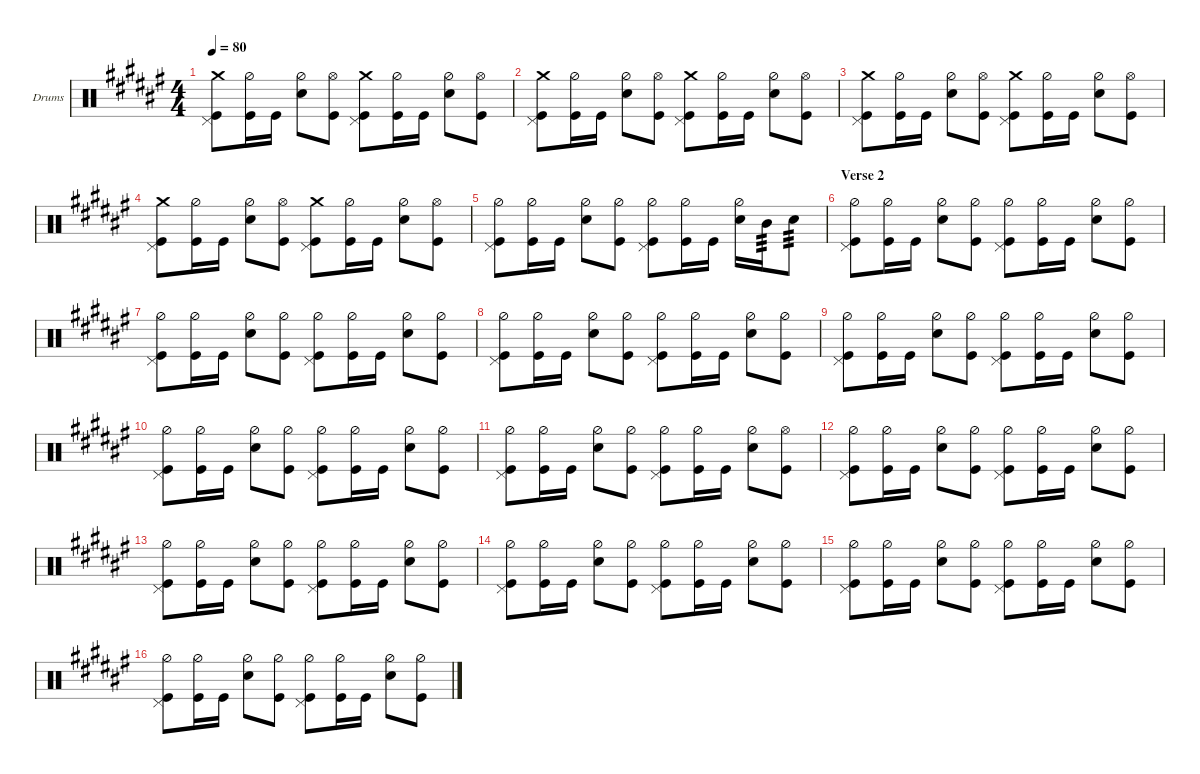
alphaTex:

\defaultSystemsLayout 4
\hideDynamics
\bracketExtendMode groupsimilarinstruments
\multiBarRest
\firstSystemTrackNameOrientation horizontal
\otherSystemsTrackNameOrientation horizontal
\track ("Drumkit" "Drums") {multiBarRest instrument percussion}
\staff {score}
\articulation defaults
\ts (4 4)
\tempo 80
\clef neutral
\ks f#
("Kick (hit)" "Pedal Hi-Hat (hit)" "Crash medium (hit)").8{dy mf} ("Kick (hit)" "Hi-Hat (half)").16 "Kick (hit)".16 ("Snare (hit) 2" "Hi-Hat (half)").8 ("Kick (hit)" "Hi-Hat (open)").8 ("Kick (hit)" "Pedal Hi-Hat (hit)" "Crash medium (hit)").8 ("Kick (hit)" "Hi-Hat (half)").16 "Kick (hit)".16 ("Snare (hit) 2" "Hi-Hat (half)").8 ("Kick (hit)" "Hi-Hat (open)").8 |
("Kick (hit)" "Pedal Hi-Hat (hit)" "Crash medium (hit)").8 ("Kick (hit)" "Hi-Hat (half)").16 "Kick (hit)".16 ("Snare (hit) 2" "Hi-Hat (half)").8 ("Kick (hit)" "Hi-Hat (open)").8 ("Kick (hit)" "Pedal Hi-Hat (hit)" "Crash medium (hit)").8 ("Kick (hit)" "Hi-Hat (half)").16 "Kick (hit)".16 ("Snare (hit) 2" "Hi-Hat (half)").8 ("Kick (hit)" "Hi-Hat (open)").8 |
("Kick (hit)" "Pedal Hi-Hat (hit)" "Crash medium (hit)").8 ("Kick (hit)" "Hi-Hat (half)").16 "Kick (hit)".16 ("Snare (hit) 2" "Hi-Hat (half)").8 ("Kick (hit)" "Hi-Hat (open)").8 ("Kick (hit)" "Pedal Hi-Hat (hit)" "Crash medium (hit)").8 ("Kick (hit)" "Hi-Hat (half)").16 "Kick (hit)".16 ("Snare (hit) 2" "Hi-Hat (half)").8 ("Kick (hit)" "Hi-Hat (open)").8 |
("Kick (hit)" "Pedal Hi-Hat (hit)" "Crash medium (hit)").8 ("Kick (hit)" "Hi-Hat (half)").16 "Kick (hit)".16 ("Snare (hit) 2" "Hi-Hat (half)").8 ("Kick (hit)" "Hi-Hat (open)").8 ("Kick (hit)" "Pedal Hi-Hat (hit)" "Crash medium (hit)").8 ("Kick (hit)" "Hi-Hat (half)").16 "Kick (hit)".16 ("Snare (hit) 2" "Hi-Hat (half)").8 ("Kick (hit)" "Hi-Hat (open)").8 |
("Kick (hit)" "Pedal Hi-Hat (hit)" "Hi-Hat (half)").8 ("Kick (hit)" "Hi-Hat (half)").16 "Kick (hit)".16 ("Snare (hit) 2" "Hi-Hat (half)").8 ("Kick (hit)" "Hi-Hat (half)").8 ("Kick (hit)" "Pedal Hi-Hat (hit)" "Hi-Hat (half)").8 ("Kick (hit)" "Hi-Hat (half)").16 "Kick (hit)".16 ("Snare (hit) 2" "Hi-Hat (half)").16 "Mid Tom (hit)".16{tp 3} "Snare (hit) 2".8{tp 3} |
\section ("" "Verse 2")
("Kick (hit)" "Pedal Hi-Hat (hit)" "Hi-Hat (half)").8 ("Kick (hit)" "Hi-Hat (half)").16 "Kick (hit)".16 ("Snare (hit) 2" "Hi-Hat (half)").8 ("Kick (hit)" "Hi-Hat (half)").8 ("Kick (hit)" "Pedal Hi-Hat (hit)" "Hi-Hat (half)").8 ("Kick (hit)" "Hi-Hat (half)").16 "Kick (hit)".16 ("Snare (hit) 2" "Hi-Hat (half)").8 ("Kick (hit)" "Hi-Hat (half)").8 |
("Kick (hit)" "Pedal Hi-Hat (hit)" "Hi-Hat (half)").8 ("Kick (hit)" "Hi-Hat (half)").16 "Kick (hit)".16 ("Snare (hit) 2" "Hi-Hat (half)").8 ("Kick (hit)" "Hi-Hat (half)").8 ("Kick (hit)" "Pedal Hi-Hat (hit)" "Hi-Hat (half)").8 ("Kick (hit)" "Hi-Hat (half)").16 "Kick (hit)".16 ("Snare (hit) 2" "Hi-Hat (half)").8 ("Kick (hit)" "Hi-Hat (half)").8 |
("Kick (hit)" "Pedal Hi-Hat (hit)" "Hi-Hat (half)").8 ("Kick (hit)" "Hi-Hat (half)").16 "Kick (hit)".16 ("Snare (hit) 2" "Hi-Hat (half)").8 ("Kick (hit)" "Hi-Hat (half)").8 ("Kick (hit)" "Pedal Hi-Hat (hit)" "Hi-Hat (half)").8 ("Kick (hit)" "Hi-Hat (half)").16 "Kick (hit)".16 ("Snare (hit) 2" "Hi-Hat (half)").8 ("Kick (hit)" "Hi-Hat (half)").8 |
("Kick (hit)" "Pedal Hi-Hat (hit)" "Hi-Hat (half)").8 ("Kick (hit)" "Hi-Hat (half)").16 "Kick (hit)".16 ("Snare (hit) 2" "Hi-Hat (half)").8 ("Kick (hit)" "Hi-Hat (half)").8 ("Kick (hit)" "Pedal Hi-Hat (hit)" "Hi-Hat (half)").8 ("Kick (hit)" "Hi-Hat (half)").16 "Kick (hit)".16 ("Snare (hit) 2" "Hi-Hat (half)").8 ("Kick (hit)" "Hi-Hat (half)").8 |
("Kick (hit)" "Pedal Hi-Hat (hit)" "Hi-Hat (half)").8 ("Kick (hit)" "Hi-Hat (half)").16 "Kick (hit)".16 ("Snare (hit) 2" "Hi-Hat (half)").8 ("Kick (hit)" "Hi-Hat (half)").8 ("Kick (hit)" "Pedal Hi-Hat (hit)" "Hi-Hat (half)").8 ("Kick (hit)" "Hi-Hat (half)").16 "Kick (hit)".16 ("Snare (hit) 2" "Hi-Hat (half)").8 ("Kick (hit)" "Hi-Hat (half)").8 |
("Kick (hit)" "Pedal Hi-Hat (hit)" "Hi-Hat (half)").8 ("Kick (hit)" "Hi-Hat (half)").16 "Kick (hit)".16 ("Snare (hit) 2" "Hi-Hat (half)").8 ("Kick (hit)" "Hi-Hat (half)").8 ("Kick (hit)" "Pedal Hi-Hat (hit)" "Hi-Hat (half)").8 ("Kick (hit)" "Hi-Hat (half)").16 "Kick (hit)".16 ("Snare (hit) 2" "Hi-Hat (half)").8 ("Kick (hit)" "Hi-Hat (open)").8 |
("Kick (hit)" "Pedal Hi-Hat (hit)" "Hi-Hat (half)").8 ("Kick (hit)" "Hi-Hat (half)").16 "Kick (hit)".16 ("Snare (hit) 2" "Hi-Hat (half)").8 ("Kick (hit)" "Hi-Hat (half)").8 ("Kick (hit)" "Pedal Hi-Hat (hit)" "Hi-Hat (half)").8 ("Kick (hit)" "Hi-Hat (half)").16 "Kick (hit)".16 ("Snare (hit) 2" "Hi-Hat (half)").8 ("Kick (hit)" "Hi-Hat (half)").8 |
("Kick (hit)" "Pedal Hi-Hat (hit)" "Hi-Hat (half)").8 ("Kick (hit)" "Hi-Hat (half)").16 "Kick (hit)".16 ("Snare (hit) 2" "Hi-Hat (half)").8 ("Kick (hit)" "Hi-Hat (half)").8 ("Kick (hit)" "Pedal Hi-Hat (hit)" "Hi-Hat (half)").8 ("Kick (hit)" "Hi-Hat (half)").16 "Kick (hit)".16 ("Snare (hit) 2" "Hi-Hat (half)").8 ("Kick (hit)" "Hi-Hat (half)").8 |
("Kick (hit)" "Pedal Hi-Hat (hit)" "Hi-Hat (half)").8 ("Kick (hit)" "Hi-Hat (half)").16 "Kick (hit)".16 ("Snare (hit) 2" "Hi-Hat (half)").8 ("Kick (hit)" "Hi-Hat (half)").8 ("Kick (hit)" "Pedal Hi-Hat (hit)" "Hi-Hat (half)").8 ("Kick (hit)" "Hi-Hat (half)").16 "Kick (hit)".16 ("Snare (hit) 2" "Hi-Hat (half)").8 ("Kick (hit)" "Hi-Hat (half)").8 |
("Kick (hit)" "Pedal Hi-Hat (hit)" "Hi-Hat (half)").8 ("Kick (hit)" "Hi-Hat (half)").16 "Kick (hit)".16 ("Snare (hit) 2" "Hi-Hat (half)").8 ("Kick (hit)" "Hi-Hat (half)").8 ("Kick (hit)" "Pedal Hi-Hat (hit)" "Hi-Hat (half)").8 ("Kick (hit)" "Hi-Hat (half)").16 "Kick (hit)".16 ("Snare (hit) 2" "Hi-Hat (half)").8 ("Kick (hit)" "Hi-Hat (half)").8 |
("Kick (hit)" "Pedal Hi-Hat (hit)" "Hi-Hat (half)").8 ("Kick (hit)" "Hi-Hat (half)").16 "Kick (hit)".16 ("Snare (hit) 2" "Hi-Hat (half)").8 ("Kick (hit)" "Hi-Hat (half)").8 ("Kick (hit)" "Pedal Hi-Hat (hit)" "Hi-Hat (half)").8 ("Kick (hit)" "Hi-Hat (half)").16 "Kick (hit)".16 ("Snare (hit) 2" "Hi-Hat (half)").8 ("Kick (hit)" "Hi-Hat (half)").8
